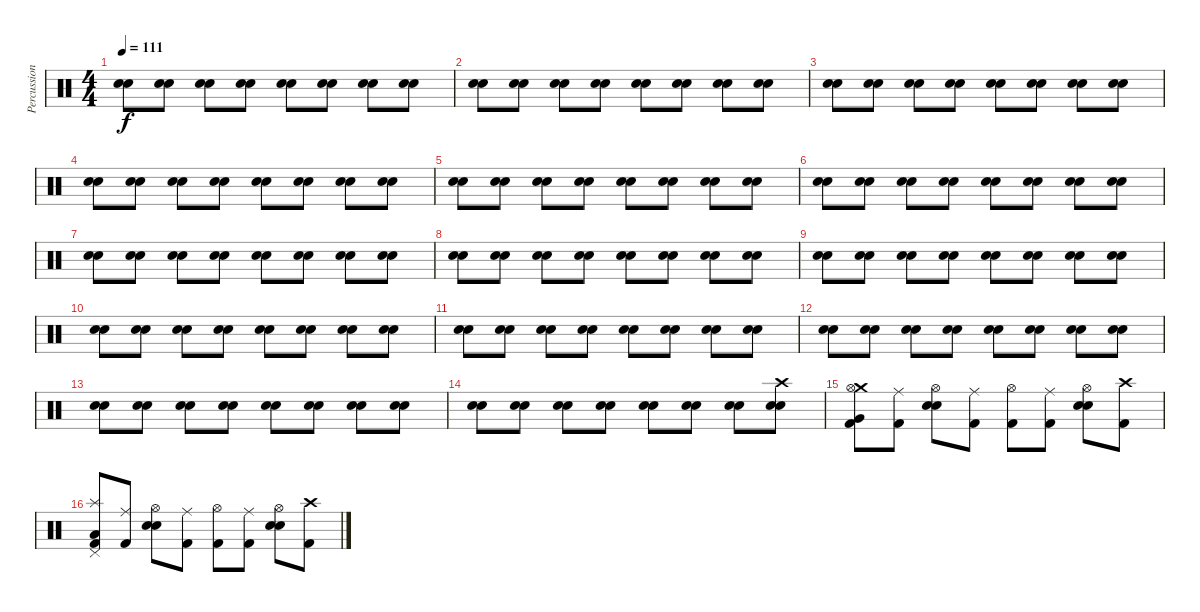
\track ("Percussion" "Percussion") {instrument percussion}
\staff {score}
\articulation defaults
\ts (4 4)
\tempo 111
\clef neutral
\ks c
("Electric Snare (hit)" "Snare (hit) 2").8{dy f} ("Electric Snare (hit)" "Snare (hit) 2").8 ("Electric Snare (hit)" "Snare (hit) 2").8 ("Electric Snare (hit)" "Snare (hit) 2").8 ("Electric Snare (hit)" "Snare (hit) 2").8 ("Electric Snare (hit)" "Snare (hit) 2").8 ("Electric Snare (hit)" "Snare (hit) 2").8 ("Electric Snare (hit)" "Snare (hit) 2").8 |
("Electric Snare (hit)" "Snare (hit) 2").8 ("Electric Snare (hit)" "Snare (hit) 2").8 ("Electric Snare (hit)" "Snare (hit) 2").8 ("Electric Snare (hit)" "Snare (hit) 2").8 ("Electric Snare (hit)" "Snare (hit) 2").8 ("Electric Snare (hit)" "Snare (hit) 2").8 ("Electric Snare (hit)" "Snare (hit) 2").8 ("Electric Snare (hit)" "Snare (hit) 2").8 |
("Electric Snare (hit)" "Snare (hit) 2").8{volume 8} ("Electric Snare (hit)" "Snare (hit) 2").8 ("Electric Snare (hit)" "Snare (hit) 2").8 ("Electric Snare (hit)" "Snare (hit) 2").8 ("Electric Snare (hit)" "Snare (hit) 2").8 ("Electric Snare (hit)" "Snare (hit) 2").8 ("Electric Snare (hit)" "Snare (hit) 2").8 ("Electric Snare (hit)" "Snare (hit) 2").8 |
("Electric Snare (hit)" "Snare (hit) 2").8{volume 9} ("Electric Snare (hit)" "Snare (hit) 2").8 ("Electric Snare (hit)" "Snare (hit) 2").8 ("Electric Snare (hit)" "Snare (hit) 2").8 ("Electric Snare (hit)" "Snare (hit) 2").8 ("Electric Snare (hit)" "Snare (hit) 2").8 ("Electric Snare (hit)" "Snare (hit) 2").8 ("Electric Snare (hit)" "Snare (hit) 2").8 |
("Electric Snare (hit)" "Snare (hit) 2").8{volume 10} ("Electric Snare (hit)" "Snare (hit) 2").8 ("Electric Snare (hit)" "Snare (hit) 2").8 ("Electric Snare (hit)" "Snare (hit) 2").8 ("Electric Snare (hit)" "Snare (hit) 2").8{volume 11} ("Electric Snare (hit)" "Snare (hit) 2").8 ("Electric Snare (hit)" "Snare (hit) 2").8 ("Electric Snare (hit)" "Snare (hit) 2").8 |
("Electric Snare (hit)" "Snare (hit) 2").8{volume 12} ("Electric Snare (hit)" "Snare (hit) 2").8 ("Electric Snare (hit)" "Snare (hit) 2").8 ("Electric Snare (hit)" "Snare (hit) 2").8 ("Electric Snare (hit)" "Snare (hit) 2").8 ("Electric Snare (hit)" "Snare (hit) 2").8 ("Electric Snare (hit)" "Snare (hit) 2").8 ("Electric Snare (hit)" "Snare (hit) 2").8 |
("Electric Snare (hit)" "Snare (hit) 2").8{volume 10} ("Electric Snare (hit)" "Snare (hit) 2").8 ("Electric Snare (hit)" "Snare (hit) 2").8 ("Electric Snare (hit)" "Snare (hit) 2").8 ("Electric Snare (hit)" "Snare (hit) 2").8 ("Electric Snare (hit)" "Snare (hit) 2").8 ("Electric Snare (hit)" "Snare (hit) 2").8 ("Electric Snare (hit)" "Snare (hit) 2").8 |
("Electric Snare (hit)" "Snare (hit) 2").8 ("Electric Snare (hit)" "Snare (hit) 2").8 ("Electric Snare (hit)" "Snare (hit) 2").8 ("Electric Snare (hit)" "Snare (hit) 2").8 ("Electric Snare (hit)" "Snare (hit) 2").8 ("Electric Snare (hit)" "Snare (hit) 2").8 ("Electric Snare (hit)" "Snare (hit) 2").8 ("Electric Snare (hit)" "Snare (hit) 2").8 |
("Electric Snare (hit)" "Snare (hit) 2").8 ("Electric Snare (hit)" "Snare (hit) 2").8 ("Electric Snare (hit)" "Snare (hit) 2").8 ("Electric Snare (hit)" "Snare (hit) 2").8 ("Electric Snare (hit)" "Snare (hit) 2").8 ("Electric Snare (hit)" "Snare (hit) 2").8 ("Electric Snare (hit)" "Snare (hit) 2").8 ("Electric Snare (hit)" "Snare (hit) 2").8 |
("Electric Snare (hit)" "Snare (hit) 2").8 ("Electric Snare (hit)" "Snare (hit) 2").8 ("Electric Snare (hit)" "Snare (hit) 2").8 ("Electric Snare (hit)" "Snare (hit) 2").8 ("Electric Snare (hit)" "Snare (hit) 2").8 ("Electric Snare (hit)" "Snare (hit) 2").8 ("Electric Snare (hit)" "Snare (hit) 2").8 ("Electric Snare (hit)" "Snare (hit) 2").8 |
("Electric Snare (hit)" "Snare (hit) 2").8 ("Electric Snare (hit)" "Snare (hit) 2").8 ("Electric Snare (hit)" "Snare (hit) 2").8 ("Electric Snare (hit)" "Snare (hit) 2").8 ("Electric Snare (hit)" "Snare (hit) 2").8 ("Electric Snare (hit)" "Snare (hit) 2").8 ("Electric Snare (hit)" "Snare (hit) 2").8 ("Electric Snare (hit)" "Snare (hit) 2").8 |
("Electric Snare (hit)" "Snare (hit) 2").8 ("Electric Snare (hit)" "Snare (hit) 2").8 ("Electric Snare (hit)" "Snare (hit) 2").8 ("Electric Snare (hit)" "Snare (hit) 2").8 ("Electric Snare (hit)" "Snare (hit) 2").8 ("Electric Snare (hit)" "Snare (hit) 2").8 ("Electric Snare (hit)" "Snare (hit) 2").8 ("Electric Snare (hit)" "Snare (hit) 2").8 |
("Electric Snare (hit)" "Snare (hit) 2").8 ("Electric Snare (hit)" "Snare (hit) 2").8 ("Electric Snare (hit)" "Snare (hit) 2").8 ("Electric Snare (hit)" "Snare (hit) 2").8 ("Electric Snare (hit)" "Snare (hit) 2").8{volume 11} ("Electric Snare (hit)" "Snare (hit) 2").8 ("Electric Snare (hit)" "Snare (hit) 2").8 ("Electric Snare (hit)" "Snare (hit) 2").8 |
("Electric Snare (hit)" "Snare (hit) 2").8{volume 12} ("Electric Snare (hit)" "Snare (hit) 2").8 ("Electric Snare (hit)" "Snare (hit) 2").8 ("Electric Snare (hit)" "Snare (hit) 2").8 ("Electric Snare (hit)" "Snare (hit) 2").8 ("Electric Snare (hit)" "Snare (hit) 2").8 ("Electric Snare (hit)" "Snare (hit) 2").8 ("Electric Snare (hit)" "Snare (hit) 2" "Crash high (hit)").8 |
("Kick (hit) 2" "Very Low Tom (hit)" "Crash medium (hit)" "Hi-Hat (open)").8{volume 16} ("Kick (hit) 2" "Ride (middle)").8 ("Snare (hit) 2" "Electric Snare (hit)" "Hi-Hat (open)").8 ("Kick (hit) 2" "Ride (middle)").8 ("Kick (hit) 2" "Hi-Hat (open)").8 ("Kick (hit) 2" "Ride (middle)").8 ("Snare (hit) 2" "Electric Snare (hit)" "Hi-Hat (open)").8 ("Kick (hit) 2" "Crash high (hit)").8 |
("Kick (hit) 2" "Low Tom (hit)" "Splash (hit)" "Pedal Hi-Hat (hit)").8 ("Kick (hit) 2" "Ride (middle)").8 ("Snare (hit) 2" "Electric Snare (hit)" "Hi-Hat (open)").8 ("Kick (hit) 2" "Ride (middle)").8 ("Kick (hit) 2" "Hi-Hat (open)").8 ("Kick (hit) 2" "Ride (middle)").8 ("Snare (hit) 2" "Electric Snare (hit)" "Hi-Hat (open)").8 ("Kick (hit) 2" "Crash high (hit)").8
